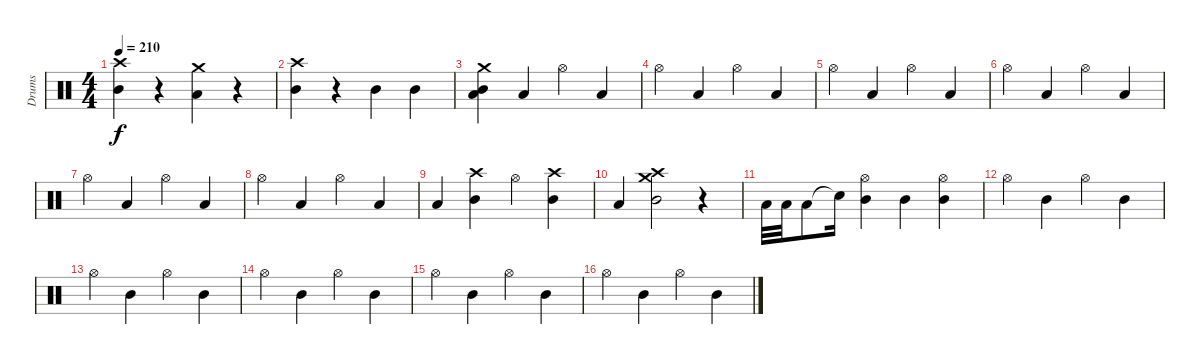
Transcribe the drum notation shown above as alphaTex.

\track ("Drums" "Drums") {instrument percussion}
\staff {score}
\articulation defaults
\ts (4 4)
\tempo 210
\clef neutral
\ks c
("Mid Tom (hit)" "Crash high (hit)").4{dy f} r.4 ("Low Tom (hit)" "Crash medium (hit)").4 r.4 |
("Mid Tom (hit)" "Crash high (hit)").4 r.4 "Mid Tom (hit)".4 "Mid Tom (hit)".4 |
("Low Tom (hit)" "Mid Tom (hit)" "Crash medium (hit)").4 "Low Tom (hit)".4 "Hi-Hat (open)".4 "Low Tom (hit)".4 |
"Hi-Hat (open)".4 "Low Tom (hit)".4 "Hi-Hat (open)".4 "Low Tom (hit)".4 |
"Hi-Hat (open)".4 "Low Tom (hit)".4 "Hi-Hat (open)".4 "Low Tom (hit)".4 |
"Hi-Hat (open)".4 "Low Tom (hit)".4 "Hi-Hat (open)".4 "Low Tom (hit)".4 |
"Hi-Hat (open)".4 "Low Tom (hit)".4 "Hi-Hat (open)".4 "Low Tom (hit)".4 |
"Hi-Hat (open)".4 "Low Tom (hit)".4 "Hi-Hat (open)".4 "Low Tom (hit)".4 |
"Low Tom (hit)".4 ("Crash high (hit)" "Mid Tom (hit)").4 "Hi-Hat (open)".4 ("Crash high (hit)" "Mid Tom (hit)").4 |
"Low Tom (hit)".4 ("Crash medium (hit)" "Crash high (hit)" "Mid Tom (hit)").2 r.4 |
"Low Tom (hit)".32 "Low Tom (hit)".32 "Low Tom (hit)".8 "Snare (hit)"{t}.16 ("Hi-Hat (open)" "Mid Tom (hit)").4 "Mid Tom (hit)".4 ("Hi-Hat (open)" "Mid Tom (hit)").4 |
"Hi-Hat (open)".4 "Mid Tom (hit)".4 "Hi-Hat (open)".4 "Mid Tom (hit)".4 |
"Hi-Hat (open)".4 "Mid Tom (hit)".4 "Hi-Hat (open)".4 "Mid Tom (hit)".4 |
"Hi-Hat (open)".4 "Mid Tom (hit)".4 "Hi-Hat (open)".4 "Mid Tom (hit)".4 |
"Hi-Hat (open)".4 "Mid Tom (hit)".4 "Hi-Hat (open)".4 "Mid Tom (hit)".4 |
"Hi-Hat (open)".4 "Mid Tom (hit)".4 "Hi-Hat (open)".4 "Mid Tom (hit)".4
